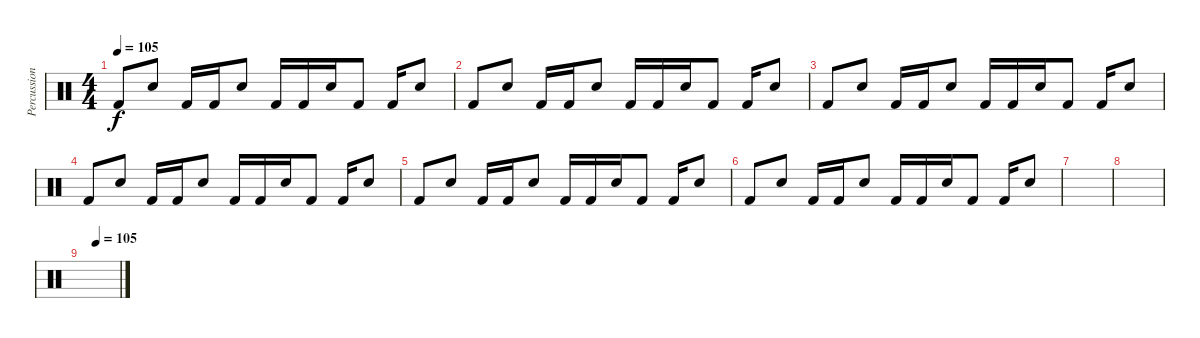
\track ("Percussions" "Percussion") {instrument percussion}
\staff {score}
\articulation defaults
\ts (4 4)
\tempo 105
\clef neutral
\ks c "Kick (hit) 2".8{dy f} "Snare (hit) 2".8 "Kick (hit) 2".16 "Kick (hit) 2".16 "Snare (hit) 2".8 "Kick (hit) 2".16 "Kick (hit) 2".16 "Snare (hit) 2".16 "Kick (hit) 2".8 "Kick (hit) 2".16 "Snare (hit) 2".8
|
"Kick (hit) 2".8 "Snare (hit) 2".8 "Kick (hit) 2".16 "Kick (hit) 2".16 "Snare (hit) 2".8 "Kick (hit) 2".16 "Kick (hit) 2".16 "Snare (hit) 2".16 "Kick (hit) 2".8 "Kick (hit) 2".16 "Snare (hit) 2".8 |
"Kick (hit) 2".8 "Snare (hit) 2".8 "Kick (hit) 2".16 "Kick (hit) 2".16 "Snare (hit) 2".8 "Kick (hit) 2".16 "Kick (hit) 2".16 "Snare (hit) 2".16 "Kick (hit) 2".8 "Kick (hit) 2".16 "Snare (hit) 2".8 |
"Kick (hit) 2".8 "Snare (hit) 2".8 "Kick (hit) 2".16 "Kick (hit) 2".16 "Snare (hit) 2".8 "Kick (hit) 2".16 "Kick (hit) 2".16 "Snare (hit) 2".16 "Kick (hit) 2".8 "Kick (hit) 2".16 "Snare (hit) 2".8 |
"Kick (hit) 2".8 "Snare (hit) 2".8 "Kick (hit) 2".16 "Kick (hit) 2".16 "Snare (hit) 2".8 "Kick (hit) 2".16 "Kick (hit) 2".16 "Snare (hit) 2".16 "Kick (hit) 2".8 "Kick (hit) 2".16 "Snare (hit) 2".8 |
"Kick (hit) 2".8 "Snare (hit) 2".8 "Kick (hit) 2".16 "Kick (hit) 2".16 "Snare (hit) 2".8 "Kick (hit) 2".16 "Kick (hit) 2".16 "Snare (hit) 2".16 "Kick (hit) 2".8 "Kick (hit) 2".16 "Snare (hit) 2".8 |
|
|
\tempo (105 0.375)
